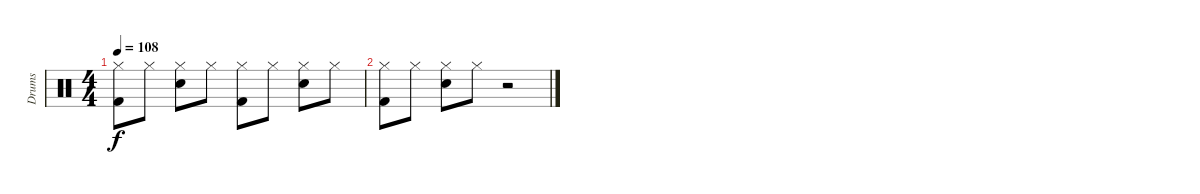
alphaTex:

\track ("Drums" "Drums") {instrument percussion}
\staff {score}
\articulation defaults
\ts (4 4)
\tempo 108
\clef neutral
\ks c
("Hi-Hat (closed)" "Kick (hit) 2").8{dy f} "Hi-Hat (closed)".8 ("Hi-Hat (closed)" "Snare (hit) 2").8 "Hi-Hat (closed)".8 ("Hi-Hat (closed)" "Kick (hit) 2").8 "Hi-Hat (closed)".8 ("Hi-Hat (closed)" "Snare (hit) 2").8 "Hi-Hat (closed)".8 |
("Hi-Hat (closed)" "Kick (hit) 2").8 "Hi-Hat (closed)".8 ("Hi-Hat (closed)" "Snare (hit) 2").8 "Hi-Hat (closed)".8 r.2
